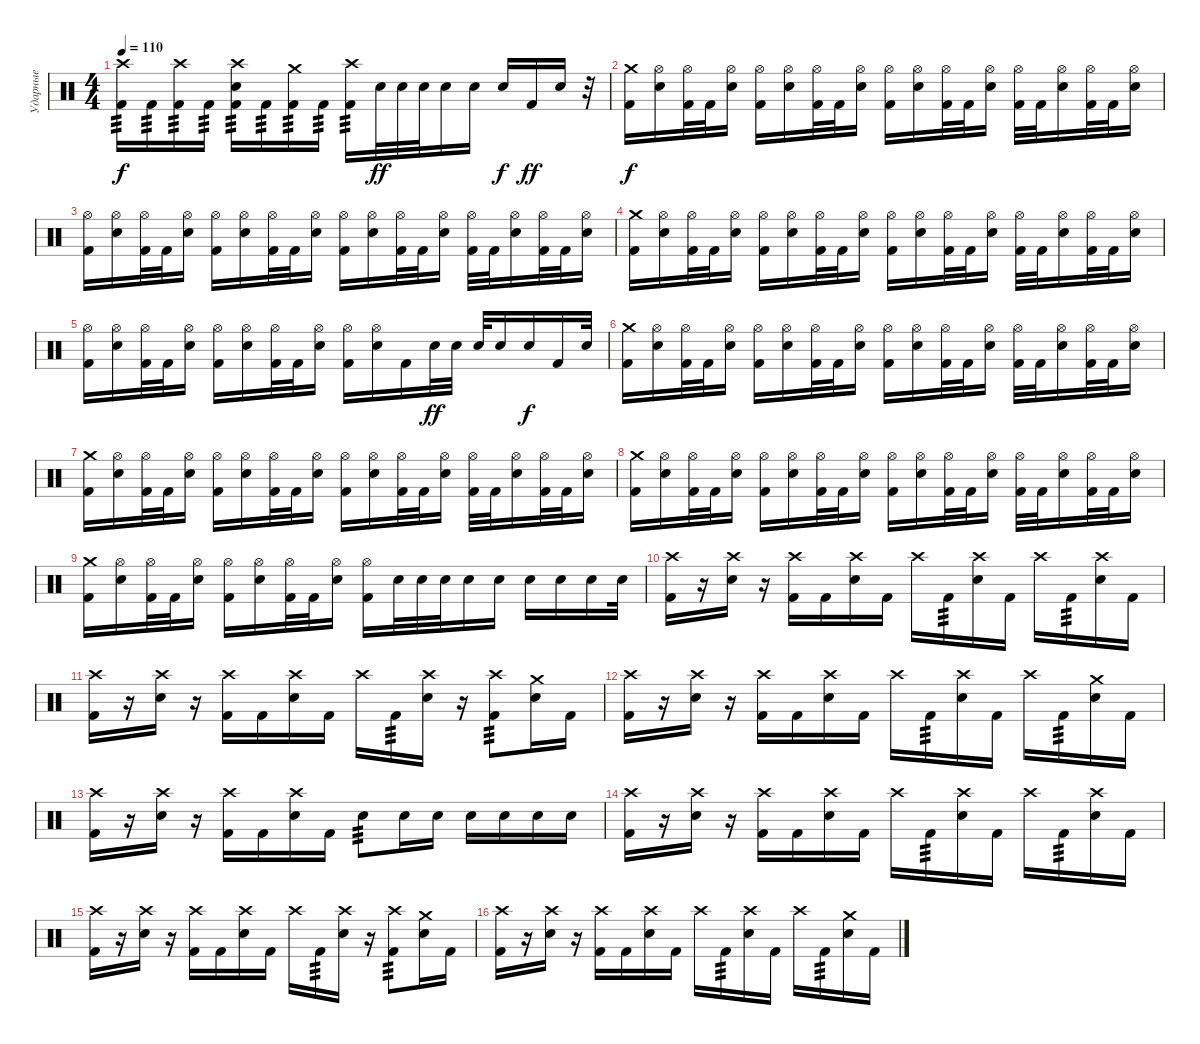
\track ("Ударные" "Ударные") {instrument percussion}
\staff {score}
\articulation defaults
\ts (4 4)
\tempo 110
\clef neutral
\ks c
("Crash high (hit)" "Kick (hit) 2").16{tp 3 dy f} "Kick (hit) 2".16{tp 3} ("Crash high (hit)" "Kick (hit) 2").16{tp 3} "Kick (hit) 2".16{tp 3} ("Crash high (hit)" "Snare (hit) 2" "Kick (hit) 2").16{tp 3} "Kick (hit) 2".16{tp 3} ("Crash medium (hit)" "Kick (hit) 2").16{tp 3} "Kick (hit) 2".16{tp 3} ("Crash high (hit)" "Kick (hit) 2").16{tp 3} "Snare (hit) 2".32{dy ff} "Snare (hit) 2".32 "Snare (hit) 2".32 "Snare (hit) 2".16 "Snare (hit) 2".16 "Snare (hit) 2".16{dy f} "Kick (hit) 2".16{dy ff} "Snare (hit) 2".16 r.32 |
("Crash medium (hit)" "Kick (hit) 2").16{dy f} ("Hi-Hat (open)" "Snare (hit) 2").16 ("Hi-Hat (open)" "Kick (hit) 2").32 "Kick (hit) 2".32 ("Hi-Hat (open)" "Snare (hit) 2").16 ("Hi-Hat (open)" "Kick (hit) 2").16 ("Hi-Hat (open)" "Snare (hit) 2").16 ("Hi-Hat (open)" "Kick (hit) 2").32 "Kick (hit) 2".32 ("Hi-Hat (open)" "Snare (hit) 2").16 ("Hi-Hat (open)" "Kick (hit) 2").16 ("Hi-Hat (open)" "Snare (hit) 2").16 ("Hi-Hat (open)" "Kick (hit) 2").32 "Kick (hit) 2".32 ("Hi-Hat (open)" "Snare (hit) 2").16 ("Hi-Hat (open)" "Kick (hit) 2").32 "Kick (hit) 2".32 ("Hi-Hat (open)" "Snare (hit) 2").16 ("Hi-Hat (open)" "Kick (hit) 2").32 "Kick (hit) 2".32 ("Hi-Hat (open)" "Snare (hit) 2").16 |
("Hi-Hat (open)" "Kick (hit) 2").16 ("Hi-Hat (open)" "Snare (hit) 2").16 ("Hi-Hat (open)" "Kick (hit) 2").32 "Kick (hit) 2".32 ("Hi-Hat (open)" "Snare (hit) 2").16 ("Hi-Hat (open)" "Kick (hit) 2").16 ("Hi-Hat (open)" "Snare (hit) 2").16 ("Hi-Hat (open)" "Kick (hit) 2").32 "Kick (hit) 2".32 ("Hi-Hat (open)" "Snare (hit) 2").16 ("Hi-Hat (open)" "Kick (hit) 2").16 ("Hi-Hat (open)" "Snare (hit) 2").16 ("Hi-Hat (open)" "Kick (hit) 2").32 "Kick (hit) 2".32 ("Hi-Hat (open)" "Snare (hit) 2").16 ("Hi-Hat (open)" "Kick (hit) 2").32 "Kick (hit) 2".32 ("Hi-Hat (open)" "Snare (hit) 2").16 ("Hi-Hat (open)" "Kick (hit) 2").32 "Kick (hit) 2".32 ("Hi-Hat (open)" "Snare (hit) 2").16 |
("Crash medium (hit)" "Kick (hit) 2").16 ("Hi-Hat (open)" "Snare (hit) 2").16 ("Hi-Hat (open)" "Kick (hit) 2").32 "Kick (hit) 2".32 ("Hi-Hat (open)" "Snare (hit) 2").16 ("Hi-Hat (open)" "Kick (hit) 2").16 ("Hi-Hat (open)" "Snare (hit) 2").16 ("Hi-Hat (open)" "Kick (hit) 2").32 "Kick (hit) 2".32 ("Hi-Hat (open)" "Snare (hit) 2").16 ("Hi-Hat (open)" "Kick (hit) 2").16 ("Hi-Hat (open)" "Snare (hit) 2").16 ("Hi-Hat (open)" "Kick (hit) 2").32 "Kick (hit) 2".32 ("Hi-Hat (open)" "Snare (hit) 2").16 ("Hi-Hat (open)" "Kick (hit) 2").32 "Kick (hit) 2".32 ("Hi-Hat (open)" "Snare (hit) 2").16 ("Hi-Hat (open)" "Kick (hit) 2").32 "Kick (hit) 2".32 ("Hi-Hat (open)" "Snare (hit) 2").16 |
("Hi-Hat (open)" "Kick (hit) 2").16 ("Hi-Hat (open)" "Snare (hit) 2").16 ("Hi-Hat (open)" "Kick (hit) 2").32 "Kick (hit) 2".32 ("Hi-Hat (open)" "Snare (hit) 2").16 ("Hi-Hat (open)" "Kick (hit) 2").16 ("Hi-Hat (open)" "Snare (hit) 2").16 ("Hi-Hat (open)" "Kick (hit) 2").32 "Kick (hit) 2".32 ("Hi-Hat (open)" "Snare (hit) 2").16 ("Hi-Hat (open)" "Kick (hit) 2").16 ("Hi-Hat (open)" "Snare (hit) 2").16 "Kick (hit) 2".16 "Snare (hit) 2".32{dy ff} "Snare (hit) 2".32 "Snare (hit) 2".32 "Snare (hit) 2".16 "Snare (hit) 2".16{dy f} "Kick (hit) 2".16 "Snare (hit) 2".32 |
("Crash medium (hit)" "Kick (hit) 2").16 ("Hi-Hat (open)" "Snare (hit) 2").16 ("Hi-Hat (open)" "Kick (hit) 2").32 "Kick (hit) 2".32 ("Hi-Hat (open)" "Snare (hit) 2").16 ("Hi-Hat (open)" "Kick (hit) 2").16 ("Hi-Hat (open)" "Snare (hit) 2").16 ("Hi-Hat (open)" "Kick (hit) 2").32 "Kick (hit) 2".32 ("Hi-Hat (open)" "Snare (hit) 2").16 ("Hi-Hat (open)" "Kick (hit) 2").16 ("Hi-Hat (open)" "Snare (hit) 2").16 ("Hi-Hat (open)" "Kick (hit) 2").32 "Kick (hit) 2".32 ("Hi-Hat (open)" "Snare (hit) 2").16 ("Hi-Hat (open)" "Kick (hit) 2").32 "Kick (hit) 2".32 ("Hi-Hat (open)" "Snare (hit) 2").16 ("Hi-Hat (open)" "Kick (hit) 2").32 "Kick (hit) 2".32 ("Hi-Hat (open)" "Snare (hit) 2").16 |
("Crash medium (hit)" "Kick (hit) 2").16 ("Hi-Hat (open)" "Snare (hit) 2").16 ("Hi-Hat (open)" "Kick (hit) 2").32 "Kick (hit) 2".32 ("Hi-Hat (open)" "Snare (hit) 2").16 ("Hi-Hat (open)" "Kick (hit) 2").16 ("Hi-Hat (open)" "Snare (hit) 2").16 ("Hi-Hat (open)" "Kick (hit) 2").32 "Kick (hit) 2".32 ("Hi-Hat (open)" "Snare (hit) 2").16 ("Hi-Hat (open)" "Kick (hit) 2").16 ("Hi-Hat (open)" "Snare (hit) 2").16 ("Hi-Hat (open)" "Kick (hit) 2").32 "Kick (hit) 2".32 ("Hi-Hat (open)" "Snare (hit) 2").16 ("Hi-Hat (open)" "Kick (hit) 2").32 "Kick (hit) 2".32 ("Hi-Hat (open)" "Snare (hit) 2").16 ("Hi-Hat (open)" "Kick (hit) 2").32 "Kick (hit) 2".32 ("Hi-Hat (open)" "Snare (hit) 2").16 |
("Crash medium (hit)" "Kick (hit) 2").16 ("Hi-Hat (open)" "Snare (hit) 2").16 ("Hi-Hat (open)" "Kick (hit) 2").32 "Kick (hit) 2".32 ("Hi-Hat (open)" "Snare (hit) 2").16 ("Hi-Hat (open)" "Kick (hit) 2").16 ("Hi-Hat (open)" "Snare (hit) 2").16 ("Hi-Hat (open)" "Kick (hit) 2").32 "Kick (hit) 2".32 ("Hi-Hat (open)" "Snare (hit) 2").16 ("Hi-Hat (open)" "Kick (hit) 2").16 ("Hi-Hat (open)" "Snare (hit) 2").16 ("Hi-Hat (open)" "Kick (hit) 2").32 "Kick (hit) 2".32 ("Hi-Hat (open)" "Snare (hit) 2").16 ("Hi-Hat (open)" "Kick (hit) 2").32 "Kick (hit) 2".32 ("Hi-Hat (open)" "Snare (hit) 2").16 ("Hi-Hat (open)" "Kick (hit) 2").32 "Kick (hit) 2".32 ("Hi-Hat (open)" "Snare (hit) 2").16 |
("Crash medium (hit)" "Kick (hit) 2").16 ("Hi-Hat (open)" "Snare (hit) 2").16 ("Hi-Hat (open)" "Kick (hit) 2").32 "Kick (hit) 2".32 ("Hi-Hat (open)" "Snare (hit) 2").16 ("Hi-Hat (open)" "Kick (hit) 2").16 ("Hi-Hat (open)" "Snare (hit) 2").16 ("Hi-Hat (open)" "Kick (hit) 2").32 "Kick (hit) 2".32 ("Hi-Hat (open)" "Snare (hit) 2").16 ("Hi-Hat (open)" "Kick (hit) 2").16 "Snare (hit) 2".32 "Snare (hit) 2".32 "Snare (hit) 2".32 "Snare (hit) 2".16 "Snare (hit) 2".16 "Snare (hit) 2".16 "Snare (hit) 2".16 "Snare (hit) 2".16 "Snare (hit) 2".32 |
("Crash high (hit)" "Kick (hit) 2").16 r.16 ("Crash high (hit)" "Snare (hit) 2").16 r.16 ("Crash high (hit)" "Kick (hit) 2").16 "Kick (hit) 2".16 ("Crash high (hit)" "Snare (hit) 2").16 "Kick (hit) 2".16 "Crash high (hit)".16 "Kick (hit) 2".16{tp 3} ("Crash high (hit)" "Snare (hit) 2").16 "Kick (hit) 2".16 "Crash high (hit)".16 "Kick (hit) 2".16{tp 3} ("Crash high (hit)" "Snare (hit) 2").16 "Kick (hit) 2".16 |
("Crash high (hit)" "Kick (hit) 2").16 r.16 ("Crash high (hit)" "Snare (hit) 2").16 r.16 ("Crash high (hit)" "Kick (hit) 2").16 "Kick (hit) 2".16 ("Crash high (hit)" "Snare (hit) 2").16 "Kick (hit) 2".16 "Crash high (hit)".16 "Kick (hit) 2".16{tp 3} ("Crash high (hit)" "Snare (hit) 2").16 r.16 ("Crash high (hit)" "Kick (hit) 2").8{tp 3} ("Crash medium (hit)" "Snare (hit) 2").16 "Kick (hit) 2".16 |
("Crash high (hit)" "Kick (hit) 2").16 r.16 ("Crash high (hit)" "Snare (hit) 2").16 r.16 ("Crash high (hit)" "Kick (hit) 2").16 "Kick (hit) 2".16 ("Crash high (hit)" "Snare (hit) 2").16 "Kick (hit) 2".16 "Crash high (hit)".16 "Kick (hit) 2".16{tp 3} ("Crash high (hit)" "Snare (hit) 2").16 "Kick (hit) 2".16 "Crash high (hit)".16 "Kick (hit) 2".16{tp 3} ("Crash medium (hit)" "Snare (hit) 2").16 "Kick (hit) 2".16 |
("Crash high (hit)" "Kick (hit) 2").16 r.16 ("Crash high (hit)" "Snare (hit) 2").16 r.16 ("Crash high (hit)" "Kick (hit) 2").16 "Kick (hit) 2".16 ("Crash high (hit)" "Snare (hit) 2").16 "Kick (hit) 2".16 "Snare (hit) 2".8{tp 3} "Snare (hit) 2".16 "Snare (hit) 2".16 "Snare (hit) 2".16 "Snare (hit) 2".16 "Snare (hit) 2".16 "Snare (hit) 2".16 |
("Crash high (hit)" "Kick (hit) 2").16 r.16 ("Crash high (hit)" "Snare (hit) 2").16 r.16 ("Crash high (hit)" "Kick (hit) 2").16 "Kick (hit) 2".16 ("Crash high (hit)" "Snare (hit) 2").16 "Kick (hit) 2".16 "Crash high (hit)".16 "Kick (hit) 2".16{tp 3} ("Crash high (hit)" "Snare (hit) 2").16 "Kick (hit) 2".16 "Crash high (hit)".16 "Kick (hit) 2".16{tp 3} ("Crash high (hit)" "Snare (hit) 2").16 "Kick (hit) 2".16 |
("Crash high (hit)" "Kick (hit) 2").16 r.16 ("Crash high (hit)" "Snare (hit) 2").16 r.16 ("Crash high (hit)" "Kick (hit) 2").16 "Kick (hit) 2".16 ("Crash high (hit)" "Snare (hit) 2").16 "Kick (hit) 2".16 "Crash high (hit)".16 "Kick (hit) 2".16{tp 3} ("Crash high (hit)" "Snare (hit) 2").16 r.16 ("Crash high (hit)" "Kick (hit) 2").8{tp 3} ("Crash medium (hit)" "Snare (hit) 2").16 "Kick (hit) 2".16 |
("Crash high (hit)" "Kick (hit) 2").16 r.16 ("Crash high (hit)" "Snare (hit) 2").16 r.16 ("Crash high (hit)" "Kick (hit) 2").16 "Kick (hit) 2".16 ("Crash high (hit)" "Snare (hit) 2").16 "Kick (hit) 2".16 "Crash high (hit)".16 "Kick (hit) 2".16{tp 3} ("Crash high (hit)" "Snare (hit) 2").16 "Kick (hit) 2".16 "Crash high (hit)".16 "Kick (hit) 2".16{tp 3} ("Crash medium (hit)" "Snare (hit) 2").16 "Kick (hit) 2".16
